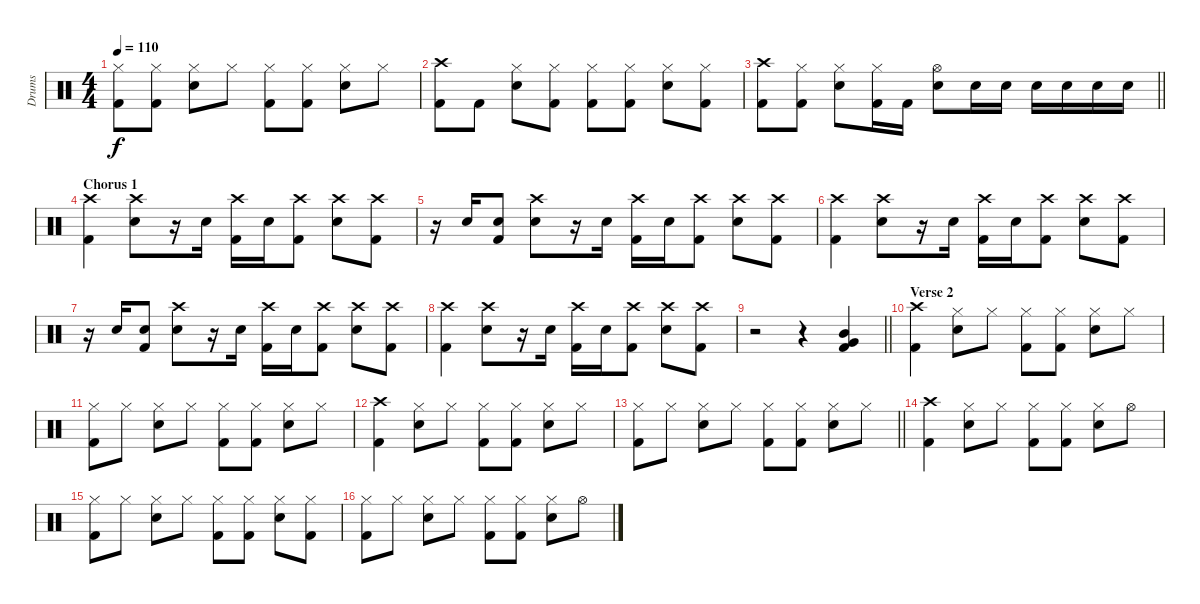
\track ("Drums" "Drums") {instrument percussion}
\staff {score}
\articulation defaults
\ts (4 4)
\tempo 110
\clef neutral
\ks c
("Hi-Hat (closed)" "Kick (hit) 2").8{dy f} ("Hi-Hat (closed)" "Kick (hit) 2").8 ("Hi-Hat (closed)" "Electric Snare (hit)").8 "Hi-Hat (closed)".8 ("Hi-Hat (closed)" "Kick (hit) 2").8 ("Hi-Hat (closed)" "Kick (hit) 2").8 ("Hi-Hat (closed)" "Electric Snare (hit)").8 "Hi-Hat (closed)".8 |
("Crash high (hit)" "Kick (hit) 2").8 "Kick (hit) 2".8 ("Hi-Hat (closed)" "Electric Snare (hit)").8 ("Hi-Hat (closed)" "Kick (hit) 2").8 ("Hi-Hat (closed)" "Kick (hit) 2").8 ("Hi-Hat (closed)" "Kick (hit) 2").8 ("Hi-Hat (closed)" "Electric Snare (hit)").8 ("Hi-Hat (closed)" "Kick (hit) 2").8 |
\barLineRight lightlight
("Crash high (hit)" "Kick (hit) 2").8 ("Hi-Hat (closed)" "Kick (hit) 2").8 ("Hi-Hat (closed)" "Electric Snare (hit)").8 ("Hi-Hat (closed)" "Kick (hit) 2").16 "Kick (hit) 2".16 ("Hi-Hat (open)" "Electric Snare (hit)").8 "Electric Snare (hit)".16 "Electric Snare (hit)".16 "Electric Snare (hit)".16 "Electric Snare (hit)".16 "Electric Snare (hit)".16 "Electric Snare (hit)".16 |
\section ("" "Chorus 1")
("Crash high (hit)" "Kick (hit) 2").4 ("Crash high (hit)" "Electric Snare (hit)").8 r.16 "Electric Snare (hit)".16 ("Crash high (hit)" "Kick (hit) 2").16 "Electric Snare (hit)".16 ("Crash high (hit)" "Kick (hit) 2").8 ("Crash high (hit)" "Electric Snare (hit)").8 ("Crash high (hit)" "Kick (hit) 2").8 |
r.16 "Electric Snare (hit)".16 ("Electric Snare (hit)" "Kick (hit) 2").8 ("Crash high (hit)" "Electric Snare (hit)").8 r.16 "Electric Snare (hit)".16 ("Crash high (hit)" "Kick (hit) 2").16 "Electric Snare (hit)".16 ("Crash high (hit)" "Kick (hit) 2").8 ("Crash high (hit)" "Electric Snare (hit)").8 ("Crash high (hit)" "Kick (hit) 2").8 |
("Crash high (hit)" "Kick (hit) 2").4 ("Crash high (hit)" "Electric Snare (hit)").8 r.16 "Electric Snare (hit)".16 ("Crash high (hit)" "Kick (hit) 2").16 "Electric Snare (hit)".16 ("Crash high (hit)" "Kick (hit) 2").8 ("Crash high (hit)" "Electric Snare (hit)").8 ("Crash high (hit)" "Kick (hit) 2").8 |
r.16 "Electric Snare (hit)".16 ("Electric Snare (hit)" "Kick (hit) 2").8 ("Crash high (hit)" "Electric Snare (hit)").8 r.16 "Electric Snare (hit)".16 ("Crash high (hit)" "Kick (hit) 2").16 "Electric Snare (hit)".16 ("Crash high (hit)" "Kick (hit) 2").8 ("Crash high (hit)" "Electric Snare (hit)").8 ("Crash high (hit)" "Kick (hit) 2").8 |
("Crash high (hit)" "Kick (hit) 2").4 ("Crash high (hit)" "Electric Snare (hit)").8 r.16 "Electric Snare (hit)".16 ("Crash high (hit)" "Kick (hit) 2").16 "Electric Snare (hit)".16 ("Crash high (hit)" "Kick (hit) 2").8 ("Crash high (hit)" "Electric Snare (hit)").8 ("Crash high (hit)" "Kick (hit) 2").8 |
\barLineRight lightlight
r.2 r.4 ("Mid Tom (hit)" "Very Low Tom (hit)" "Kick (hit) 2").4 |
\section ("" "Verse 2")
("Crash high (hit)" "Kick (hit) 2").4 ("Hi-Hat (closed)" "Electric Snare (hit)").8 "Hi-Hat (closed)".8 ("Hi-Hat (closed)" "Kick (hit) 2").8 ("Hi-Hat (closed)" "Kick (hit) 2").8 ("Hi-Hat (closed)" "Electric Snare (hit)").8 "Hi-Hat (closed)".8 |
("Hi-Hat (closed)" "Kick (hit) 2").8 "Hi-Hat (closed)".8 ("Hi-Hat (closed)" "Electric Snare (hit)").8 "Hi-Hat (closed)".8 ("Hi-Hat (closed)" "Kick (hit) 2").8 ("Hi-Hat (closed)" "Kick (hit) 2").8 ("Hi-Hat (closed)" "Electric Snare (hit)").8 "Hi-Hat (closed)".8 |
("Crash high (hit)" "Kick (hit) 2").4 ("Hi-Hat (closed)" "Electric Snare (hit)").8 "Hi-Hat (closed)".8 ("Hi-Hat (closed)" "Kick (hit) 2").8 ("Hi-Hat (closed)" "Kick (hit) 2").8 ("Hi-Hat (closed)" "Electric Snare (hit)").8 "Hi-Hat (closed)".8 |
\barLineRight lightlight
("Hi-Hat (closed)" "Kick (hit) 2").8 "Hi-Hat (closed)".8 ("Hi-Hat (closed)" "Electric Snare (hit)").8 "Hi-Hat (closed)".8 ("Hi-Hat (closed)" "Kick (hit) 2").8 ("Hi-Hat (closed)" "Kick (hit) 2").8 ("Hi-Hat (closed)" "Electric Snare (hit)").8 "Hi-Hat (closed)".8 |
("Crash high (hit)" "Kick (hit) 2").4 ("Hi-Hat (closed)" "Electric Snare (hit)").8 "Hi-Hat (closed)".8 ("Hi-Hat (closed)" "Kick (hit) 2").8 ("Hi-Hat (closed)" "Kick (hit) 2").8 ("Hi-Hat (closed)" "Electric Snare (hit)").8 "Hi-Hat (open)".8 |
("Hi-Hat (closed)" "Kick (hit) 2").8 "Hi-Hat (closed)".8 ("Hi-Hat (closed)" "Electric Snare (hit)").8 "Hi-Hat (closed)".8 ("Hi-Hat (closed)" "Kick (hit) 2").8 ("Hi-Hat (closed)" "Kick (hit) 2").8 ("Hi-Hat (closed)" "Electric Snare (hit)").8 ("Hi-Hat (closed)" "Kick (hit) 2").8 |
("Hi-Hat (closed)" "Kick (hit) 2").8 "Hi-Hat (closed)".8 ("Hi-Hat (closed)" "Electric Snare (hit)").8 "Hi-Hat (closed)".8 ("Hi-Hat (closed)" "Kick (hit) 2").8 ("Hi-Hat (closed)" "Kick (hit) 2").8 ("Hi-Hat (closed)" "Electric Snare (hit)").8 "Hi-Hat (open)".8
